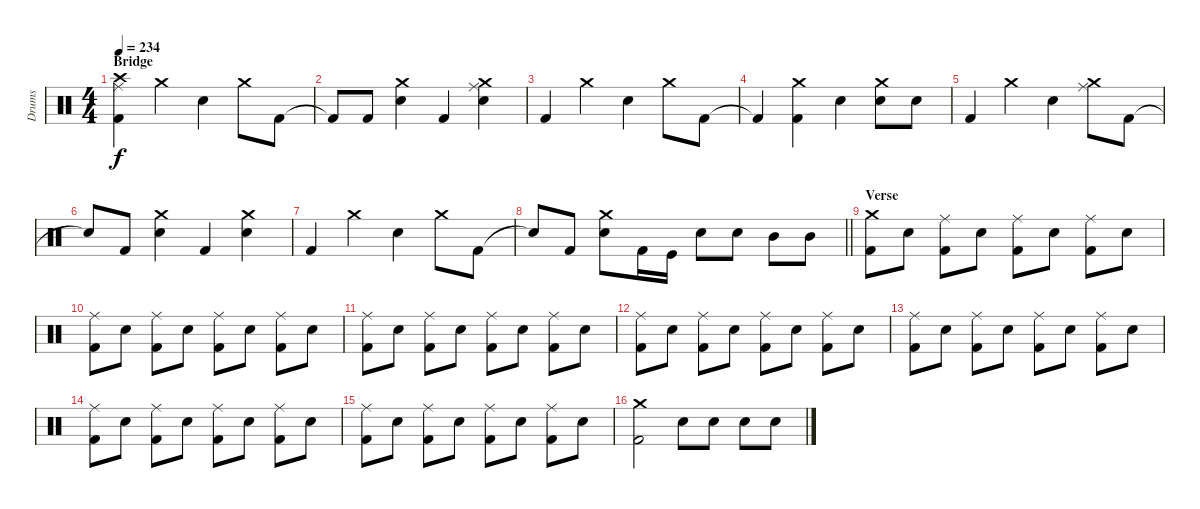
\track ("Drums" "Drums") {instrument percussion}
\staff {score}
\articulation defaults
\ts (4 4)
\section ("" "Bridge")
\tempo 234
\clef neutral
\ks c
("Crash high (hit)" "Ride (middle)" "Kick (hit) 2").4{dy f} "Crash medium (hit)".4 "Snare (hit) 2".4 "Crash medium (hit)".8 "Kick (hit) 2".8 |
"Kick (hit) 2"{t}.8 "Kick (hit) 2".8 ("Crash medium (hit)" "Snare (hit) 2").4 "Kick (hit) 2".4 ("Crash medium (hit)" "Ride (middle)" "Snare (hit) 2").4 |
"Kick (hit) 2".4 "Crash medium (hit)".4 "Snare (hit) 2".4 "Crash medium (hit)".8 "Kick (hit) 2".8 |
"Kick (hit) 2"{t}.4 ("Crash medium (hit)" "Kick (hit) 2").4 "Snare (hit) 2".4 ("Crash medium (hit)" "Snare (hit) 2").8 "Snare (hit) 2".8 |
"Kick (hit) 2".4 "Crash medium (hit)".4 "Snare (hit) 2".4 ("Crash medium (hit)" "Ride (middle)").8 "Kick (hit) 2".8 |
"Snare (hit)"{t}.8 "Kick (hit) 2".8 ("Crash medium (hit)" "Snare (hit) 2").4 "Kick (hit) 2".4 ("Crash medium (hit)" "Snare (hit) 2").4 |
"Kick (hit) 2".4 "Crash medium (hit)".4 "Snare (hit) 2".4 "Crash medium (hit)".8 "Kick (hit) 2".8 |
\barLineRight lightlight "Snare (hit)"{t}.8 "Kick (hit) 2".8
("Crash medium (hit)" "Snare (hit) 2").8 "Kick (hit) 2".16 "Kick (hit)".16 "Snare (hit) 2".8 "Snare (hit) 2".8 "Mid Tom (hit)".8 "Mid Tom (hit)".8 |
\section ("" "Verse")
("Crash medium (hit)" "Kick (hit) 2").8 "Snare (hit) 2".8 ("Ride (middle)" "Kick (hit) 2").8 "Snare (hit) 2".8 ("Ride (middle)" "Kick (hit) 2").8 "Snare (hit) 2".8 ("Ride (middle)" "Kick (hit) 2").8 "Snare (hit) 2".8 |
("Ride (middle)" "Kick (hit) 2").8 "Snare (hit) 2".8 ("Ride (middle)" "Kick (hit) 2").8 "Snare (hit) 2".8 ("Ride (middle)" "Kick (hit) 2").8 "Snare (hit) 2".8 ("Ride (middle)" "Kick (hit) 2").8 "Snare (hit) 2".8 |
("Ride (middle)" "Kick (hit) 2").8 "Snare (hit) 2".8 ("Ride (middle)" "Kick (hit) 2").8 "Snare (hit) 2".8 ("Ride (middle)" "Kick (hit) 2").8 "Snare (hit) 2".8 ("Ride (middle)" "Kick (hit) 2").8 "Snare (hit) 2".8 |
("Ride (middle)" "Kick (hit) 2").8 "Snare (hit) 2".8 ("Ride (middle)" "Kick (hit) 2").8 "Snare (hit) 2".8 ("Ride (middle)" "Kick (hit) 2").8 "Snare (hit) 2".8 ("Ride (middle)" "Kick (hit) 2").8 "Snare (hit) 2".8 |
("Ride (middle)" "Kick (hit) 2").8 "Snare (hit) 2".8 ("Ride (middle)" "Kick (hit) 2").8 "Snare (hit) 2".8 ("Ride (middle)" "Kick (hit) 2").8 "Snare (hit) 2".8 ("Ride (middle)" "Kick (hit) 2").8 "Snare (hit) 2".8 |
("Ride (middle)" "Kick (hit) 2").8 "Snare (hit) 2".8 ("Ride (middle)" "Kick (hit) 2").8 "Snare (hit) 2".8 ("Ride (middle)" "Kick (hit) 2").8 "Snare (hit) 2".8 ("Ride (middle)" "Kick (hit) 2").8 "Snare (hit) 2".8 |
("Ride (middle)" "Kick (hit) 2").8 "Snare (hit) 2".8 ("Ride (middle)" "Kick (hit) 2").8 "Snare (hit) 2".8 ("Ride (middle)" "Kick (hit) 2").8 "Snare (hit) 2".8 ("Ride (middle)" "Kick (hit) 2").8 "Snare (hit) 2".8 |
("Crash medium (hit)" "Kick (hit) 2").2 "Snare (hit) 2".8 "Snare (hit) 2".8 "Snare (hit) 2".8 "Snare (hit) 2".8
